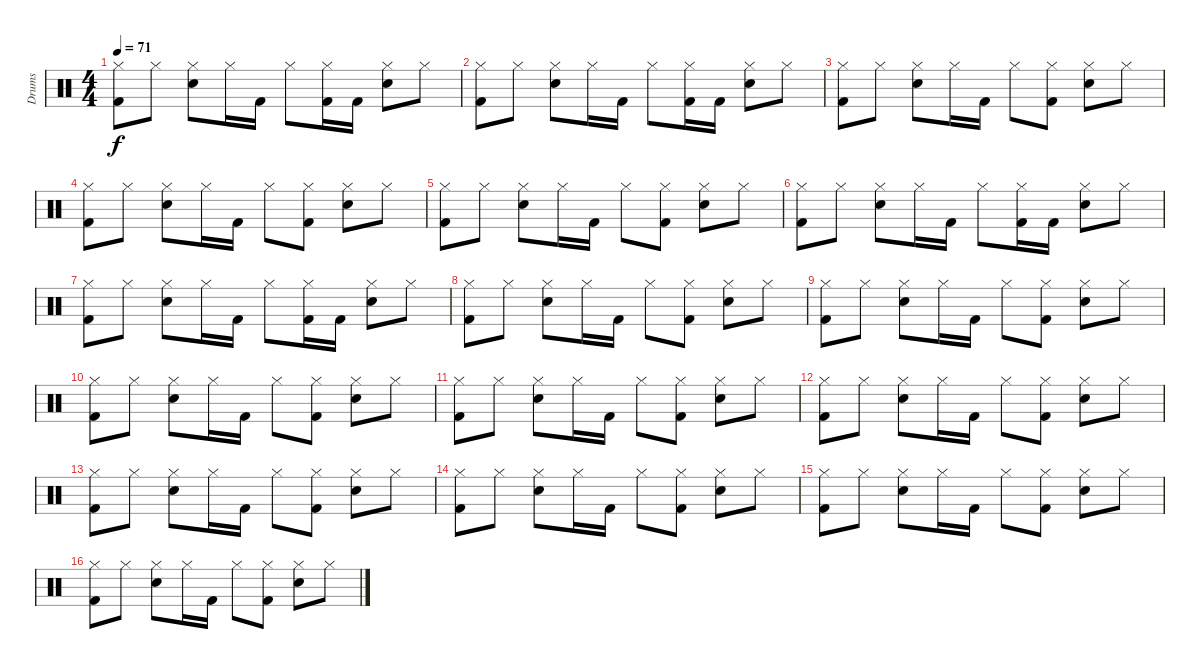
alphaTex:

\track ("Drums" "Drums") {instrument percussion}
\staff {score}
\articulation defaults
\ts (4 4)
\tempo 71
\clef neutral
\ks c
("Hi-Hat (closed)" "Kick (hit) 2").8{dy f} "Hi-Hat (closed)".8 ("Hi-Hat (closed)" "Snare (hit) 2").8 "Hi-Hat (closed)".16 "Kick (hit) 2".16 "Hi-Hat (closed)".8 ("Kick (hit) 2" "Hi-Hat (closed)").16 "Kick (hit) 2".16 ("Hi-Hat (closed)" "Snare (hit) 2").8 "Hi-Hat (closed)".8 |
("Hi-Hat (closed)" "Kick (hit) 2").8 "Hi-Hat (closed)".8 ("Hi-Hat (closed)" "Snare (hit) 2").8 "Hi-Hat (closed)".16 "Kick (hit) 2".16 "Hi-Hat (closed)".8 ("Kick (hit) 2" "Hi-Hat (closed)").16 "Kick (hit) 2".16 ("Hi-Hat (closed)" "Snare (hit) 2").8 "Hi-Hat (closed)".8 |
("Hi-Hat (closed)" "Kick (hit) 2").8 "Hi-Hat (closed)".8 ("Hi-Hat (closed)" "Snare (hit) 2").8 "Hi-Hat (closed)".16 "Kick (hit) 2".16 "Hi-Hat (closed)".8 ("Kick (hit) 2" "Hi-Hat (closed)").8 ("Hi-Hat (closed)" "Snare (hit) 2").8 "Hi-Hat (closed)".8 |
("Hi-Hat (closed)" "Kick (hit) 2").8 "Hi-Hat (closed)".8 ("Hi-Hat (closed)" "Snare (hit) 2").8 "Hi-Hat (closed)".16 "Kick (hit) 2".16 "Hi-Hat (closed)".8 ("Kick (hit) 2" "Hi-Hat (closed)").8 ("Hi-Hat (closed)" "Snare (hit) 2").8 "Hi-Hat (closed)".8 |
("Hi-Hat (closed)" "Kick (hit) 2").8 "Hi-Hat (closed)".8 ("Hi-Hat (closed)" "Snare (hit) 2").8 "Hi-Hat (closed)".16 "Kick (hit) 2".16 "Hi-Hat (closed)".8 ("Kick (hit) 2" "Hi-Hat (closed)").8 ("Hi-Hat (closed)" "Snare (hit) 2").8 "Hi-Hat (closed)".8 |
("Hi-Hat (closed)" "Kick (hit) 2").8 "Hi-Hat (closed)".8 ("Hi-Hat (closed)" "Snare (hit) 2").8 "Hi-Hat (closed)".16 "Kick (hit) 2".16 "Hi-Hat (closed)".8 ("Kick (hit) 2" "Hi-Hat (closed)").16 "Kick (hit) 2".16 ("Hi-Hat (closed)" "Snare (hit) 2").8 "Hi-Hat (closed)".8 |
("Hi-Hat (closed)" "Kick (hit) 2").8 "Hi-Hat (closed)".8 ("Hi-Hat (closed)" "Snare (hit) 2").8 "Hi-Hat (closed)".16 "Kick (hit) 2".16 "Hi-Hat (closed)".8 ("Kick (hit) 2" "Hi-Hat (closed)").16 "Kick (hit) 2".16 ("Hi-Hat (closed)" "Snare (hit) 2").8 "Hi-Hat (closed)".8 |
("Hi-Hat (closed)" "Kick (hit) 2").8 "Hi-Hat (closed)".8 ("Hi-Hat (closed)" "Snare (hit) 2").8 "Hi-Hat (closed)".16 "Kick (hit) 2".16 "Hi-Hat (closed)".8 ("Kick (hit) 2" "Hi-Hat (closed)").8 ("Hi-Hat (closed)" "Snare (hit) 2").8 "Hi-Hat (closed)".8 |
("Hi-Hat (closed)" "Kick (hit) 2").8 "Hi-Hat (closed)".8 ("Hi-Hat (closed)" "Snare (hit) 2").8 "Hi-Hat (closed)".16 "Kick (hit) 2".16 "Hi-Hat (closed)".8 ("Kick (hit) 2" "Hi-Hat (closed)").8 ("Hi-Hat (closed)" "Snare (hit) 2").8 "Hi-Hat (closed)".8 |
("Hi-Hat (closed)" "Kick (hit) 2").8 "Hi-Hat (closed)".8 ("Hi-Hat (closed)" "Snare (hit) 2").8 "Hi-Hat (closed)".16 "Kick (hit) 2".16 "Hi-Hat (closed)".8 ("Kick (hit) 2" "Hi-Hat (closed)").8 ("Hi-Hat (closed)" "Snare (hit) 2").8 "Hi-Hat (closed)".8 |
("Hi-Hat (closed)" "Kick (hit) 2").8 "Hi-Hat (closed)".8 ("Hi-Hat (closed)" "Snare (hit) 2").8 "Hi-Hat (closed)".16 "Kick (hit) 2".16 "Hi-Hat (closed)".8 ("Kick (hit) 2" "Hi-Hat (closed)").8 ("Hi-Hat (closed)" "Snare (hit) 2").8 "Hi-Hat (closed)".8 |
("Hi-Hat (closed)" "Kick (hit) 2").8 "Hi-Hat (closed)".8 ("Hi-Hat (closed)" "Snare (hit) 2").8 "Hi-Hat (closed)".16 "Kick (hit) 2".16 "Hi-Hat (closed)".8 ("Kick (hit) 2" "Hi-Hat (closed)").8 ("Hi-Hat (closed)" "Snare (hit) 2").8 "Hi-Hat (closed)".8 |
("Hi-Hat (closed)" "Kick (hit) 2").8 "Hi-Hat (closed)".8 ("Hi-Hat (closed)" "Snare (hit) 2").8 "Hi-Hat (closed)".16 "Kick (hit) 2".16 "Hi-Hat (closed)".8 ("Kick (hit) 2" "Hi-Hat (closed)").8 ("Hi-Hat (closed)" "Snare (hit) 2").8 "Hi-Hat (closed)".8 |
("Hi-Hat (closed)" "Kick (hit) 2").8 "Hi-Hat (closed)".8 ("Hi-Hat (closed)" "Snare (hit) 2").8 "Hi-Hat (closed)".16 "Kick (hit) 2".16 "Hi-Hat (closed)".8 ("Kick (hit) 2" "Hi-Hat (closed)").8 ("Hi-Hat (closed)" "Snare (hit) 2").8 "Hi-Hat (closed)".8 |
("Hi-Hat (closed)" "Kick (hit) 2").8 "Hi-Hat (closed)".8 ("Hi-Hat (closed)" "Snare (hit) 2").8 "Hi-Hat (closed)".16 "Kick (hit) 2".16 "Hi-Hat (closed)".8 ("Kick (hit) 2" "Hi-Hat (closed)").8 ("Hi-Hat (closed)" "Snare (hit) 2").8 "Hi-Hat (closed)".8 |
("Hi-Hat (closed)" "Kick (hit) 2").8 "Hi-Hat (closed)".8 ("Hi-Hat (closed)" "Snare (hit) 2").8 "Hi-Hat (closed)".16 "Kick (hit) 2".16 "Hi-Hat (closed)".8 ("Kick (hit) 2" "Hi-Hat (closed)").8 ("Hi-Hat (closed)" "Snare (hit) 2").8 "Hi-Hat (closed)".8
